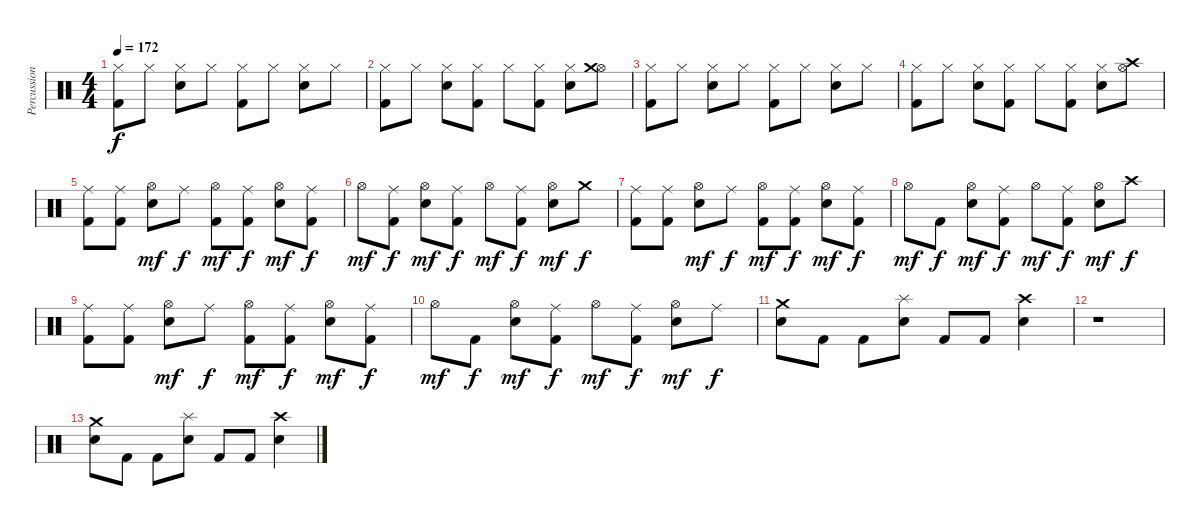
\track ("Percussions" "Percussion") {instrument percussion}
\staff {score}
\articulation defaults
\ts (4 4)
\tempo 172
\clef neutral
\ks c
("Hi-Hat (closed)" "Kick (hit) 2").8{dy f} "Hi-Hat (closed)".8 ("Hi-Hat (closed)" "Electric Snare (hit)").8 "Hi-Hat (closed)".8 ("Hi-Hat (closed)" "Kick (hit) 2").8 "Hi-Hat (closed)".8 ("Hi-Hat (closed)" "Electric Snare (hit)").8 "Hi-Hat (closed)".8 |
("Hi-Hat (closed)" "Kick (hit) 2").8 "Hi-Hat (closed)".8 ("Hi-Hat (closed)" "Electric Snare (hit)").8 ("Hi-Hat (closed)" "Kick (hit) 2").8 "Hi-Hat (closed)".8 ("Hi-Hat (closed)" "Kick (hit) 2").8 ("Hi-Hat (closed)" "Electric Snare (hit)").8 ("Hi-Hat (open)" "Crash medium (hit)").8 |
("Hi-Hat (closed)" "Kick (hit) 2").8 "Hi-Hat (closed)".8 ("Hi-Hat (closed)" "Electric Snare (hit)").8 "Hi-Hat (closed)".8 ("Hi-Hat (closed)" "Kick (hit) 2").8 "Hi-Hat (closed)".8 ("Hi-Hat (closed)" "Electric Snare (hit)").8 "Hi-Hat (closed)".8 |
("Hi-Hat (closed)" "Kick (hit) 2").8 "Hi-Hat (closed)".8 ("Hi-Hat (closed)" "Electric Snare (hit)").8 ("Hi-Hat (closed)" "Kick (hit) 2").8 "Hi-Hat (closed)".8 ("Hi-Hat (closed)" "Kick (hit) 2").8 ("Hi-Hat (closed)" "Electric Snare (hit)").8 ("Hi-Hat (open)" "Crash high (hit)").8 |
("Ride (middle)" "Kick (hit) 2").8 ("Ride (middle)" "Kick (hit) 2").8 ("Hi-Hat (open)" "Electric Snare (hit)").8{dy mf} "Ride (middle)".8{dy f} ("Hi-Hat (open)" "Kick (hit) 2").8{dy mf} ("Ride (middle)" "Kick (hit) 2").8{dy f} ("Hi-Hat (open)" "Electric Snare (hit)").8{dy mf} ("Ride (middle)" "Kick (hit) 2").8{dy f} |
"Hi-Hat (open)".8{dy mf} ("Ride (middle)" "Kick (hit) 2").8{dy f} ("Hi-Hat (open)" "Electric Snare (hit)").8{dy mf} ("Ride (middle)" "Kick (hit) 2").8{dy f} "Hi-Hat (open)".8{dy mf} ("Ride (middle)" "Kick (hit) 2").8{dy f} ("Hi-Hat (open)" "Electric Snare (hit)").8{dy mf} "Crash medium (hit)".8{dy f} |
("Ride (middle)" "Kick (hit) 2").8 ("Ride (middle)" "Kick (hit) 2").8 ("Hi-Hat (open)" "Electric Snare (hit)").8{dy mf} "Ride (middle)".8{dy f} ("Hi-Hat (open)" "Kick (hit) 2").8{dy mf} ("Ride (middle)" "Kick (hit) 2").8{dy f} ("Hi-Hat (open)" "Electric Snare (hit)").8{dy mf} ("Ride (middle)" "Kick (hit) 2").8{dy f} |
"Hi-Hat (open)".8{dy mf} "Kick (hit) 2".8{dy f} ("Hi-Hat (open)" "Electric Snare (hit)").8{dy mf} ("Ride (middle)" "Kick (hit) 2").8{dy f} "Hi-Hat (open)".8{dy mf} ("Ride (middle)" "Kick (hit) 2").8{dy f} ("Hi-Hat (open)" "Electric Snare (hit)").8{dy mf} "Crash high (hit)".8{dy f} |
("Ride (middle)" "Kick (hit) 2").8 ("Ride (middle)" "Kick (hit) 2").8 ("Hi-Hat (open)" "Electric Snare (hit)").8{dy mf} "Ride (middle)".8{dy f} ("Hi-Hat (open)" "Kick (hit) 2").8{dy mf} ("Ride (middle)" "Kick (hit) 2").8{dy f} ("Hi-Hat (open)" "Electric Snare (hit)").8{dy mf} ("Ride (middle)" "Kick (hit) 2").8{dy f} |
"Hi-Hat (open)".8{dy mf} "Kick (hit) 2".8{dy f} ("Hi-Hat (open)" "Electric Snare (hit)").8{dy mf} ("Ride (middle)" "Kick (hit) 2").8{dy f} "Hi-Hat (open)".8{dy mf} ("Ride (middle)" "Kick (hit) 2").8{dy f} ("Hi-Hat (open)" "Electric Snare (hit)").8{dy mf} "Ride (middle)".8{dy f} |
("Crash medium (hit)" "Electric Snare (hit)").8 "Kick (hit) 2".8 "Kick (hit) 2".8 ("Splash (hit)" "Electric Snare (hit)").8 "Kick (hit) 2".8 "Kick (hit) 2".8 ("Crash high (hit)" "Electric Snare (hit)").4 |
r.1 |
("Crash medium (hit)" "Electric Snare (hit)").8 "Kick (hit) 2".8 "Kick (hit) 2".8 ("Splash (hit)" "Electric Snare (hit)").8 "Kick (hit) 2".8 "Kick (hit) 2".8 ("Crash high (hit)" "Electric Snare (hit)").4
